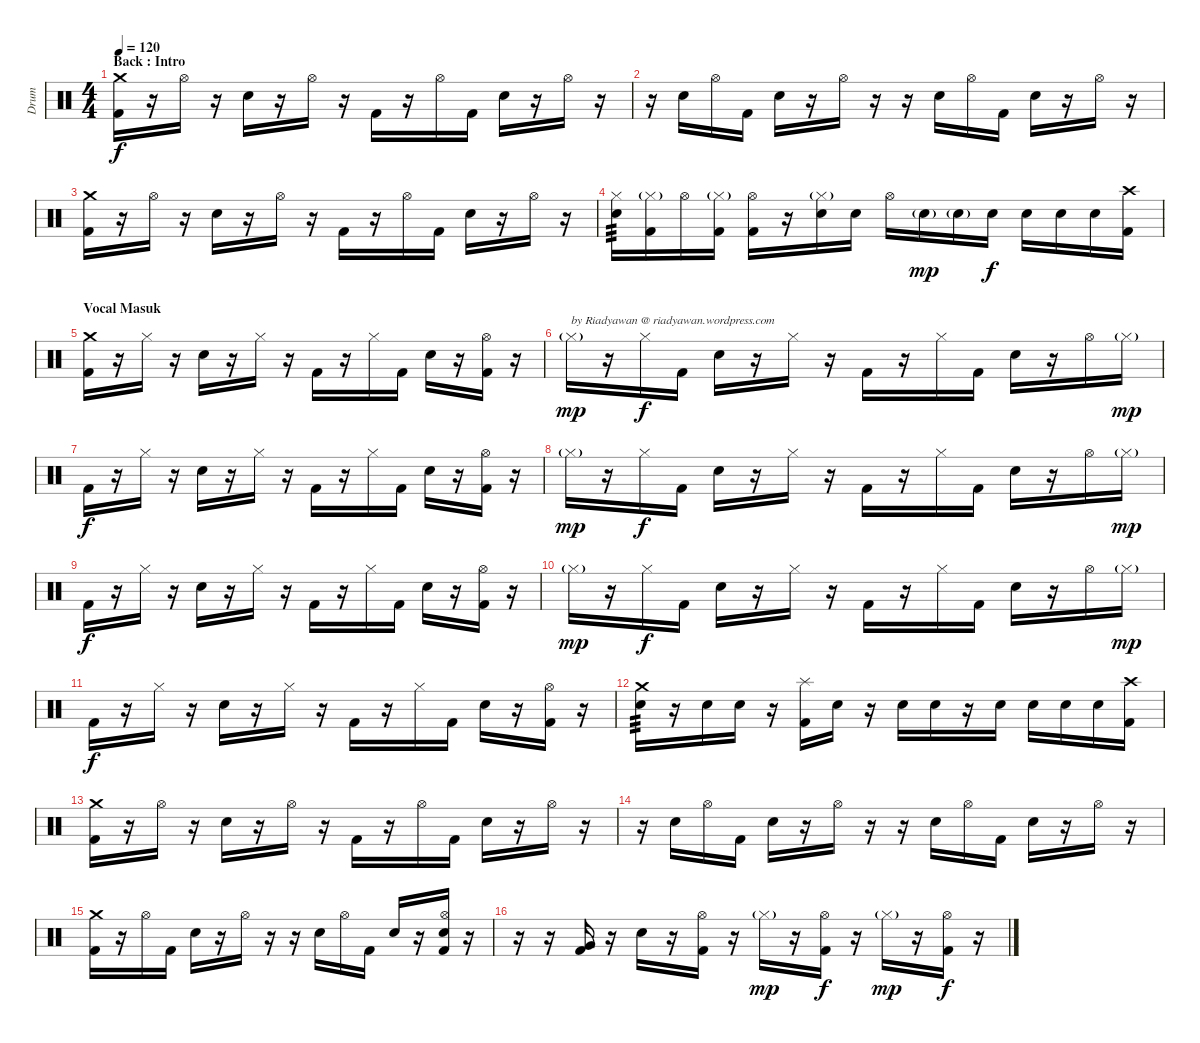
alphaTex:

\track ("Drum" "Drum") {instrument percussion}
\staff {score}
\articulation defaults
\ts (4 4)
\section ("" "Back : Intro")
\tempo 120
\clef neutral
\ks c
("Crash medium (hit)" "Kick (hit) 2").16{dy f} r.16 "Hi-Hat (open)".16 r.16 "Snare (hit) 2".16 r.16 "Hi-Hat (open)".16 r.16 "Kick (hit) 2".16 r.16 "Hi-Hat (open)".16 "Kick (hit) 2".16 "Snare (hit) 2".16 r.16 "Hi-Hat (open)".16 r.16 |
r.16 "Snare (hit) 2".16 "Hi-Hat (open)".16 "Kick (hit) 2".16 "Snare (hit) 2".16 r.16 "Hi-Hat (open)".16 r.16 r.16 "Snare (hit) 2".16 "Hi-Hat (open)".16 "Kick (hit) 2".16 "Snare (hit) 2".16 r.16 "Hi-Hat (open)".16 r.16 |
("Crash medium (hit)" "Kick (hit) 2").16 r.16 "Hi-Hat (open)".16 r.16 "Snare (hit) 2".16 r.16 "Hi-Hat (open)".16 r.16 "Kick (hit) 2".16 r.16 "Hi-Hat (open)".16 "Kick (hit) 2".16 "Snare (hit) 2".16 r.16 "Hi-Hat (open)".16 r.16 |
("Hi-Hat (closed)" "Snare (hit) 2").16{tp 3} ("Hi-Hat (closed)"{g} "Kick (hit) 2").16 "Hi-Hat (open)".16 ("Hi-Hat (closed)"{g} "Kick (hit) 2").16 ("Hi-Hat (open)" "Kick (hit) 2").16 r.16 ("Hi-Hat (closed)"{g} "Snare (hit) 2").16 "Snare (hit) 2".16 "Hi-Hat (open)".16 "Snare (hit) 2"{g}.16{dy mp} "Snare (hit) 2"{g}.16 "Snare (hit) 2".16{dy f} "Snare (hit) 2".16 "Snare (hit) 2".16 "Snare (hit) 2".16 ("Crash high (hit)" "Kick (hit) 2").16 |
\section ("" "Vocal Masuk")
("Crash medium (hit)" "Kick (hit) 2").16 r.16 "Hi-Hat (closed)".16 r.16 "Snare (hit) 2".16 r.16 "Hi-Hat (closed)".16 r.16 "Kick (hit) 2".16 r.16 "Hi-Hat (closed)".16 "Kick (hit) 2".16 "Snare (hit) 2".16 r.16 ("Hi-Hat (open)" "Kick (hit) 2").16 r.16 |
"Hi-Hat (closed)"{g}.16{txt "by Riadyawan @ riadyawan.wordpress.com" dy mp} r.16 "Hi-Hat (closed)".16{dy f} "Kick (hit) 2".16 "Snare (hit) 2".16 r.16 "Hi-Hat (closed)".16 r.16 "Kick (hit) 2".16 r.16 "Hi-Hat (closed)".16 "Kick (hit) 2".16 "Snare (hit) 2".16 r.16 "Hi-Hat (open)".16 "Hi-Hat (closed)"{g}.16{dy mp} |
"Kick (hit) 2".16{dy f} r.16 "Hi-Hat (closed)".16 r.16 "Snare (hit) 2".16 r.16 "Hi-Hat (closed)".16 r.16 "Kick (hit) 2".16 r.16 "Hi-Hat (closed)".16 "Kick (hit) 2".16 "Snare (hit) 2".16 r.16 ("Hi-Hat (open)" "Kick (hit) 2").16 r.16 |
"Hi-Hat (closed)"{g}.16{dy mp} r.16 "Hi-Hat (closed)".16{dy f} "Kick (hit) 2".16 "Snare (hit) 2".16 r.16 "Hi-Hat (closed)".16 r.16 "Kick (hit) 2".16 r.16 "Hi-Hat (closed)".16 "Kick (hit) 2".16 "Snare (hit) 2".16 r.16 "Hi-Hat (open)".16 "Hi-Hat (closed)"{g}.16{dy mp} |
"Kick (hit) 2".16{dy f} r.16 "Hi-Hat (closed)".16 r.16 "Snare (hit) 2".16 r.16 "Hi-Hat (closed)".16 r.16 "Kick (hit) 2".16 r.16 "Hi-Hat (closed)".16 "Kick (hit) 2".16 "Snare (hit) 2".16 r.16 ("Hi-Hat (open)" "Kick (hit) 2").16 r.16 |
"Hi-Hat (closed)"{g}.16{dy mp} r.16 "Hi-Hat (closed)".16{dy f} "Kick (hit) 2".16 "Snare (hit) 2".16 r.16 "Hi-Hat (closed)".16 r.16 "Kick (hit) 2".16 r.16 "Hi-Hat (closed)".16 "Kick (hit) 2".16 "Snare (hit) 2".16 r.16 "Hi-Hat (open)".16 "Hi-Hat (closed)"{g}.16{dy mp} |
"Kick (hit) 2".16{dy f} r.16 "Hi-Hat (closed)".16 r.16 "Snare (hit) 2".16 r.16 "Hi-Hat (closed)".16 r.16 "Kick (hit) 2".16 r.16 "Hi-Hat (closed)".16 "Kick (hit) 2".16 "Snare (hit) 2".16 r.16 ("Hi-Hat (open)" "Kick (hit) 2").16 r.16 |
("Crash medium (hit)" "Snare (hit) 2").16{tp 3} r.16 "Snare (hit) 2".16 "Snare (hit) 2".16 r.16 ("Splash (hit)" "Kick (hit) 2").16 "Snare (hit) 2".16 r.16 "Snare (hit) 2".16 "Snare (hit) 2".16 r.16 "Snare (hit) 2".16 "Snare (hit) 2".16 "Snare (hit) 2".16 "Snare (hit) 2".16 ("Crash high (hit)" "Kick (hit) 2").16 |
("Crash medium (hit)" "Kick (hit) 2").16 r.16 "Hi-Hat (open)".16 r.16 "Snare (hit) 2".16 r.16 "Hi-Hat (open)".16 r.16 "Kick (hit) 2".16 r.16 "Hi-Hat (open)".16 "Kick (hit) 2".16 "Snare (hit) 2".16 r.16 "Hi-Hat (open)".16 r.16 |
r.16 "Snare (hit) 2".16 "Hi-Hat (open)".16 "Kick (hit) 2".16 "Snare (hit) 2".16 r.16 "Hi-Hat (open)".16 r.16 r.16 "Snare (hit) 2".16 "Hi-Hat (open)".16 "Kick (hit) 2".16 "Snare (hit) 2".16 r.16 "Hi-Hat (open)".16 r.16 |
("Crash medium (hit)" "Kick (hit) 2").16 r.16 "Hi-Hat (open)".16 "Kick (hit) 2".16 "Snare (hit) 2".16 r.16 "Hi-Hat (open)".16 r.16 r.16 "Snare (hit) 2".16 "Hi-Hat (open)".16 "Kick (hit) 2".16 "Snare (hit) 2".16 r.16 ("Hi-Hat (open)" "Snare (hit) 2" "Kick (hit) 2").16 r.16 |
r.16 r.16 ("Very Low Tom (hit)" "Kick (hit) 2").16 r.16 "Snare (hit) 2".16 r.16 ("Hi-Hat (open)" "Kick (hit) 2").16 r.16 "Hi-Hat (closed)"{g}.16{dy mp} r.16 ("Hi-Hat (open)" "Kick (hit) 2").16{dy f} r.16 "Hi-Hat (closed)"{g}.16{dy mp} r.16 ("Hi-Hat (open)" "Kick (hit) 2").16{dy f} r.16
